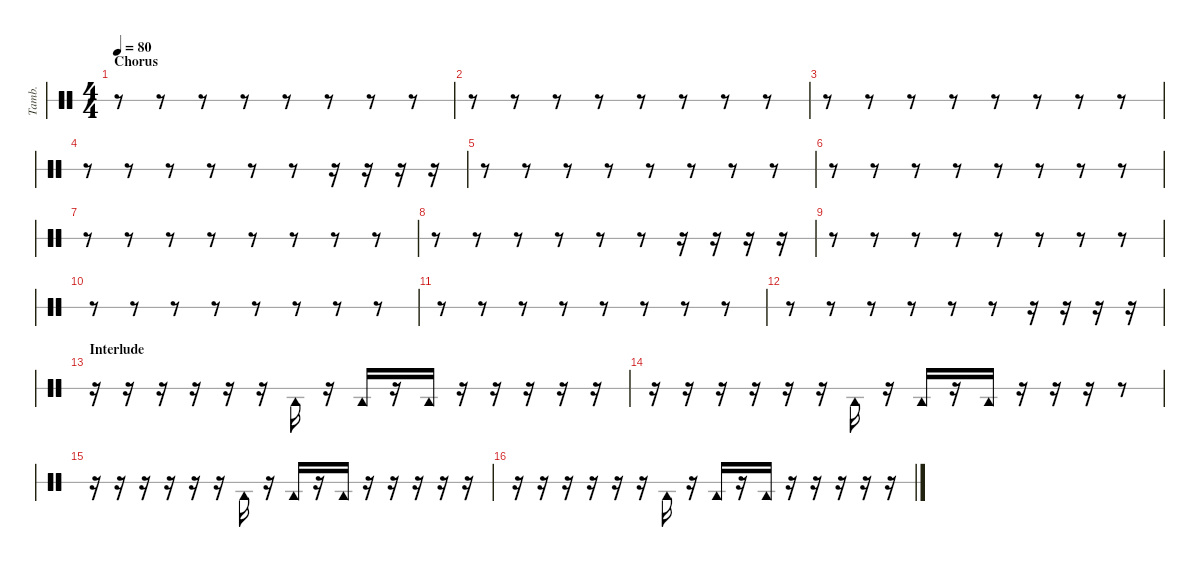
\hideDynamics
\bracketExtendMode nobrackets
\otherSystemsTrackNameOrientation horizontal
\track ("Tambourine" "Tamb.") {instrument percussion}
\staff {score 1}
\articulation defaults
\ts (4 4)
\section ("" "Chorus")
\tempo 80
\clef neutral
\ks c
r.8{dy f beam Down} r.8{beam Down} r.8{beam Down} r.8{beam Down} r.8{beam Down} r.8{beam Down} r.8{beam Down} r.8{beam Down} |
r.8{beam Down} r.8{beam Down} r.8{beam Down} r.8{beam Down} r.8{beam Down} r.8{beam Down} r.8{beam Down} r.8{beam Down} |
r.8{beam Down} r.8{beam Down} r.8{beam Down} r.8{beam Down} r.8{beam Down} r.8{beam Down} r.8{beam Down} r.8{beam Down} |
r.8{beam Down} r.8{beam Down} r.8{beam Down} r.8{beam Down} r.8{beam Down} r.8{beam Down} r.16{beam Down} r.16{beam Down} r.16{beam Down} r.16{beam Down} |
r.8{beam Down} r.8{beam Down} r.8{beam Down} r.8{beam Down} r.8{beam Down} r.8{beam Down} r.8{beam Down} r.8{beam Down} |
r.8{beam Down} r.8{beam Down} r.8{beam Down} r.8{beam Down} r.8{beam Down} r.8{beam Down} r.8{beam Down} r.8{beam Down} |
r.8{beam Down} r.8{beam Down} r.8{beam Down} r.8{beam Down} r.8{beam Down} r.8{beam Down} r.8{beam Down} r.8{beam Down} |
r.8{beam Down} r.8{beam Down} r.8{beam Down} r.8{beam Down} r.8{beam Down} r.8{beam Down} r.16{beam Down} r.16{beam Down} r.16{beam Down} r.16{beam Down} |
r.8{beam Down} r.8{beam Down} r.8{beam Down} r.8{beam Down} r.8{beam Down} r.8{beam Down} r.8{beam Down} r.8{beam Down} |
r.8{beam Down} r.8{beam Down} r.8{beam Down} r.8{beam Down} r.8{beam Down} r.8{beam Down} r.8{beam Down} r.8{beam Down} |
r.8{beam Down} r.8{beam Down} r.8{beam Down} r.8{beam Down} r.8{beam Down} r.8{beam Down} r.8{beam Down} r.8{beam Down} |
r.8{beam Down} r.8{beam Down} r.8{beam Down} r.8{beam Down} r.8{beam Down} r.8{beam Down} r.16{beam Down} r.16{beam Down} r.16{beam Down} r.16{beam Down} |
\section ("" "Interlude")
r.16{beam Down} r.16{beam Down} r.16{beam Down} r.16{beam Down} r.16{beam Down} r.16{beam Down} "Tambourine (hit)".16{beam Down} r.16{beam Down} "Tambourine (hit)".16{beam Up} r.16{beam Up} "Tambourine (hit)".16{beam Up} r.16{beam Up} r.16{beam Up} r.16{beam Up} r.16{beam Up} r.16{beam Up} |
r.16{beam Down} r.16{beam Down} r.16{beam Down} r.16{beam Down} r.16{beam Down} r.16{beam Down} "Tambourine (hit)".16{beam Down} r.16{beam Down} "Tambourine (hit)".16{beam Up} r.16{beam Up} "Tambourine (hit)".16{beam Up} r.16{beam Up} r.16{beam Up} r.16{beam Up} r.8{beam Up} |
r.16{beam Down} r.16{beam Down} r.16{beam Down} r.16{beam Down} r.16{beam Down} r.16{beam Down} "Tambourine (hit)".16{beam Down} r.16{beam Down} "Tambourine (hit)".16{beam Up} r.16{beam Up} "Tambourine (hit)".16{beam Up} r.16{beam Up} r.16{beam Up} r.16{beam Up} r.16{beam Up} r.16{beam Up} |
r.16{beam Down} r.16{beam Down} r.16{beam Down} r.16{beam Down} r.16{beam Down} r.16{beam Down} "Tambourine (hit)".16{beam Down} r.16{beam Down} "Tambourine (hit)".16{beam Up} r.16{beam Up} "Tambourine (hit)".16{beam Up} r.16{beam Up} r.16{beam Up} r.16{beam Up} r.16{beam Up} r.16{beam Up}
